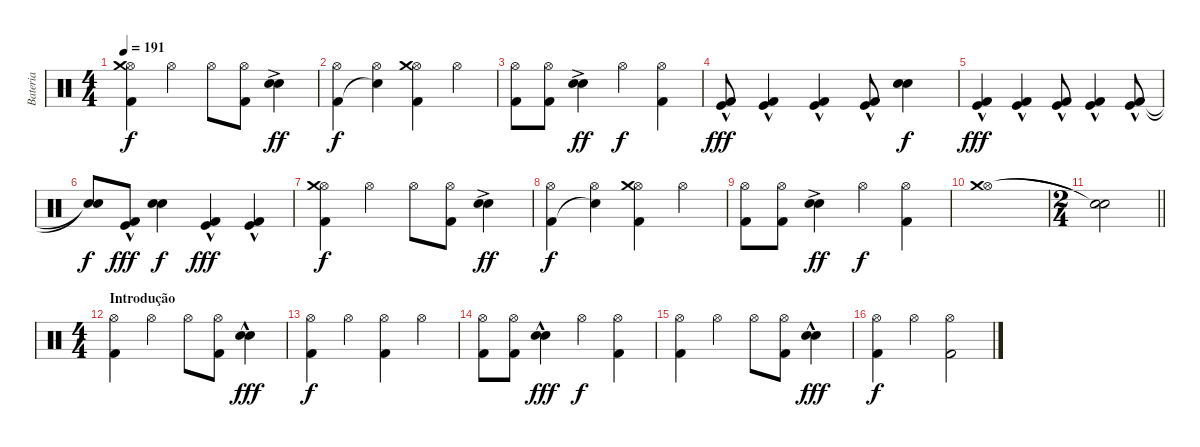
\track ("Bateria" "Bateria") {instrument percussion}
\staff {score}
\articulation defaults
\ts (4 4)
\tempo 191
\clef neutral
\ks c
("Hi-Hat (open)" "Crash medium (hit)" "Kick (hit) 2").4{dy f} "Hi-Hat (open)".4 "Hi-Hat (open)".8 ("Hi-Hat (open)" "Kick (hit) 2").8 ("Electric Snare (hit)"{ac} "Electric Snare (hit)"{ac}).4{dy ff} |
("Hi-Hat (open)" "Kick (hit) 2").4{dy f} ("Hi-Hat (open)" "Snare (hit)"{t}).4 ("Hi-Hat (open)" "Crash medium (hit)" "Kick (hit) 2").4 "Hi-Hat (open)".4 |
("Hi-Hat (open)" "Kick (hit) 2").8 ("Hi-Hat (open)" "Kick (hit) 2").8 ("Electric Snare (hit)"{ac} "Electric Snare (hit)"{ac}).4{dy ff} "Hi-Hat (open)".4{dy f} ("Hi-Hat (open)" "Kick (hit) 2").4 |
("Kick (hit)" "Kick (hit) 2"{hac}).8{dy fff} ("Kick (hit)" "Kick (hit) 2"{hac}).4 ("Kick (hit)" "Kick (hit) 2"{hac}).4 ("Kick (hit)" "Kick (hit) 2"{hac}).8 ("Electric Snare (hit)" "Electric Snare (hit)").4{dy f} |
("Kick (hit)" "Kick (hit) 2"{hac}).4{dy fff} ("Kick (hit)" "Kick (hit) 2"{hac}).4 ("Kick (hit)" "Kick (hit) 2"{hac}).8 ("Kick (hit)" "Kick (hit) 2"{hac}).4 ("Kick (hit)" "Kick (hit) 2"{hac}).8 |
("Snare (hit)"{t} "Snare (hit)"{t}).8{dy f} ("Kick (hit)" "Kick (hit) 2"{hac}).8{dy fff} ("Electric Snare (hit)" "Electric Snare (hit)").4{dy f} ("Kick (hit)" "Kick (hit) 2"{hac}).4{dy fff} ("Kick (hit)" "Kick (hit) 2"{hac}).4 |
("Hi-Hat (open)" "Crash medium (hit)" "Kick (hit) 2").4{dy f} "Hi-Hat (open)".4 "Hi-Hat (open)".8 ("Hi-Hat (open)" "Kick (hit) 2").8 ("Electric Snare (hit)"{ac} "Electric Snare (hit)"{ac}).4{dy ff} |
("Hi-Hat (open)" "Kick (hit) 2").4{dy f} ("Hi-Hat (open)" "Snare (hit)"{t}).4 ("Hi-Hat (open)" "Crash medium (hit)" "Kick (hit) 2").4 "Hi-Hat (open)".4 |
("Hi-Hat (open)" "Kick (hit) 2").8 ("Hi-Hat (open)" "Kick (hit) 2").8 ("Electric Snare (hit)"{ac} "Electric Snare (hit)"{ac}).4{dy ff} "Hi-Hat (open)".4{dy f} ("Hi-Hat (open)" "Kick (hit) 2").4 |
("Hi-Hat (open)" "Crash medium (hit)").1 |
\ts (2 4)
\barLineRight lightlight
("Snare (hit)"{t} "Snare (hit)"{t}).2 |
\ts (4 4)
\section ("" "Introdução")
("Hi-Hat (open)" "Kick (hit) 2").4 "Hi-Hat (open)".4 "Hi-Hat (open)".8 ("Hi-Hat (open)" "Kick (hit) 2").8 ("Electric Snare (hit)"{hac} "Electric Snare (hit)"{hac}).4{dy fff} |
("Hi-Hat (open)" "Kick (hit) 2").4{dy f} "Hi-Hat (open)".4 ("Hi-Hat (open)" "Kick (hit) 2").4 "Hi-Hat (open)".4 |
("Hi-Hat (open)" "Kick (hit) 2").8 ("Hi-Hat (open)" "Kick (hit) 2").8 ("Electric Snare (hit)"{hac} "Electric Snare (hit)"{hac}).4{dy fff} "Hi-Hat (open)".4{dy f} ("Hi-Hat (open)" "Kick (hit) 2").4 |
("Hi-Hat (open)" "Kick (hit) 2").4 "Hi-Hat (open)".4 "Hi-Hat (open)".8 ("Hi-Hat (open)" "Kick (hit) 2").8 ("Electric Snare (hit)"{hac} "Electric Snare (hit)"{hac}).4{dy fff} |
("Hi-Hat (open)" "Kick (hit) 2").4{dy f} "Hi-Hat (open)".4 ("Hi-Hat (open)" "Kick (hit) 2").2
